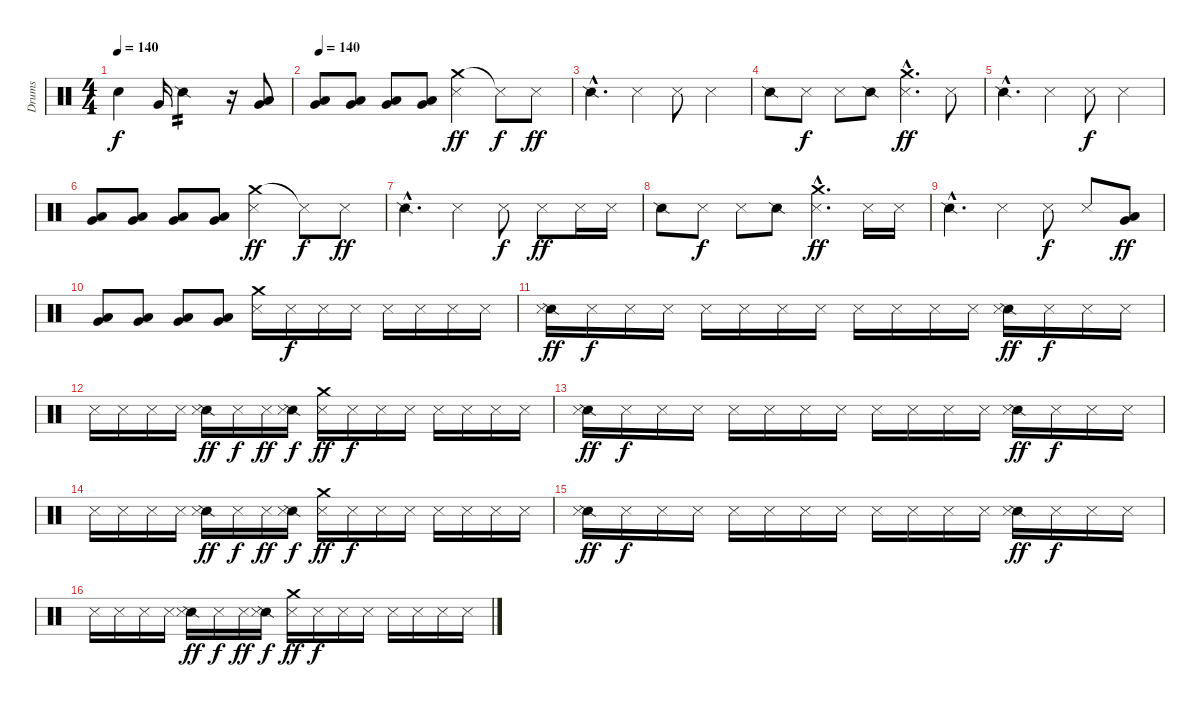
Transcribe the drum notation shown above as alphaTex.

\track ("Drums" "Drums") {instrument percussion}
\staff {score}
\articulation defaults
\ts (4 4)
\tempo 140
\clef neutral
\ks c "Snare (hit)"{t}.4{dy f} "Very Low Tom (hit)".16 "Snare (side stick) 2".2{tp 2}
r.16 ("Very Low Tom (hit)" "Low Floor Tom (hit)").8{bd 240} |
\tempo 140
("Very Low Tom (hit)" "Low Floor Tom (hit)").8{bd 120} ("Very Low Tom (hit)" "Low Floor Tom (hit)").8{bd 60} ("Very Low Tom (hit)" "Low Floor Tom (hit)").8{bd 60} ("Very Low Tom (hit)" "Low Floor Tom (hit)").8{bd 60} ("Crash medium (hit)" "Metronome (hit)").4{dy ff} "Metronome (hit)"{t}.8{dy f} "Metronome (hit)".8{dy ff} |
"Snare (side stick) 2"{hac}.4{d} "Metronome (hit)".4 "Metronome (hit)".8 "Metronome (hit)".4 |
"Snare (side stick) 2".8 "Metronome (hit)".8{dy f} "Metronome (hit)".8 "Snare (side stick) 2".8 ("Crash medium (hit)"{hac} "Metronome (hit)"{hac}).4{d dy ff} "Metronome (hit)".8 |
"Snare (side stick) 2"{hac}.4{d} "Metronome (hit)".4 "Metronome (hit)".8{dy f} "Metronome (hit)".4 |
("Very Low Tom (hit)" "Low Floor Tom (hit)").8{bd 120} ("Very Low Tom (hit)" "Low Floor Tom (hit)").8{bd 60} ("Very Low Tom (hit)" "Low Floor Tom (hit)").8{bd 60} ("Very Low Tom (hit)" "Low Floor Tom (hit)").8{bd 60} ("Crash medium (hit)" "Metronome (hit)").4{dy ff} "Metronome (hit)"{t}.8{dy f} "Metronome (hit)".8{dy ff} |
"Snare (side stick) 2"{hac}.4{d} "Metronome (hit)".4 "Metronome (hit)".8{dy f} "Metronome (hit)".8{dy ff} "Metronome (hit)".16 "Metronome (hit)".16 |
"Snare (side stick) 2".8 "Metronome (hit)".8{dy f} "Metronome (hit)".8 "Snare (side stick) 2".8 ("Crash medium (hit)"{hac} "Metronome (hit)"{hac}).4{d dy ff} "Metronome (hit)".16 "Metronome (hit)".16 |
"Snare (side stick) 2"{hac}.4{d} "Metronome (hit)".4 "Metronome (hit)".8{dy f} "Metronome (hit)".8 ("Very Low Tom (hit)" "Low Floor Tom (hit)").8{bd 60 dy ff} |
("Very Low Tom (hit)" "Low Floor Tom (hit)").8{bd 120} ("Very Low Tom (hit)" "Low Floor Tom (hit)").8{bd 60} ("Very Low Tom (hit)" "Low Floor Tom (hit)").8{bd 60} ("Very Low Tom (hit)" "Low Floor Tom (hit)").8{bd 60} ("Crash medium (hit)" "Metronome (hit)").16 "Metronome (hit)".16{dy f} "Metronome (hit)".16 "Metronome (hit)".16 "Metronome (hit)".16 "Metronome (hit)".16 "Metronome (hit)".16 "Metronome (hit)".16 |
("Snare (side stick) 2" "Metronome (hit)").16{dy ff} "Metronome (hit)".16{dy f} "Metronome (hit)".16 "Metronome (hit)".16 "Metronome (hit)".16 "Metronome (hit)".16 "Metronome (hit)".16 "Metronome (hit)".16 "Metronome (hit)".16 "Metronome (hit)".16 "Metronome (hit)".16 "Metronome (hit)".16 ("Snare (side stick) 2" "Metronome (hit)").16{dy ff} "Metronome (hit)".16{dy f} "Metronome (hit)".16 "Metronome (hit)".16 |
"Metronome (hit)".16 "Metronome (hit)".16 "Metronome (hit)".16 "Metronome (hit)".16 ("Snare (side stick) 2" "Metronome (hit)").16{dy ff} "Metronome (hit)".16{dy f} "Metronome (hit)".16{dy ff} ("Snare (side stick) 2" "Metronome (hit)").16{dy f} ("Crash medium (hit)" "Metronome (hit)").16{dy ff} "Metronome (hit)".16{dy f} "Metronome (hit)".16 "Metronome (hit)".16 "Metronome (hit)".16 "Metronome (hit)".16 "Metronome (hit)".16 "Metronome (hit)".16 |
("Snare (side stick) 2" "Metronome (hit)").16{dy ff} "Metronome (hit)".16{dy f} "Metronome (hit)".16 "Metronome (hit)".16 "Metronome (hit)".16 "Metronome (hit)".16 "Metronome (hit)".16 "Metronome (hit)".16 "Metronome (hit)".16 "Metronome (hit)".16 "Metronome (hit)".16 "Metronome (hit)".16 ("Snare (side stick) 2" "Metronome (hit)").16{dy ff} "Metronome (hit)".16{dy f} "Metronome (hit)".16 "Metronome (hit)".16 |
"Metronome (hit)".16 "Metronome (hit)".16 "Metronome (hit)".16 "Metronome (hit)".16 ("Snare (side stick) 2" "Metronome (hit)").16{dy ff} "Metronome (hit)".16{dy f} "Metronome (hit)".16{dy ff} ("Snare (side stick) 2" "Metronome (hit)").16{dy f} ("Crash medium (hit)" "Metronome (hit)").16{dy ff} "Metronome (hit)".16{dy f} "Metronome (hit)".16 "Metronome (hit)".16 "Metronome (hit)".16 "Metronome (hit)".16 "Metronome (hit)".16 "Metronome (hit)".16 |
("Snare (side stick) 2" "Metronome (hit)").16{dy ff} "Metronome (hit)".16{dy f} "Metronome (hit)".16 "Metronome (hit)".16 "Metronome (hit)".16 "Metronome (hit)".16 "Metronome (hit)".16 "Metronome (hit)".16 "Metronome (hit)".16 "Metronome (hit)".16 "Metronome (hit)".16 "Metronome (hit)".16 ("Snare (side stick) 2" "Metronome (hit)").16{dy ff} "Metronome (hit)".16{dy f} "Metronome (hit)".16 "Metronome (hit)".16 |
"Metronome (hit)".16 "Metronome (hit)".16 "Metronome (hit)".16 "Metronome (hit)".16 ("Snare (side stick) 2" "Metronome (hit)").16{dy ff} "Metronome (hit)".16{dy f} "Metronome (hit)".16{dy ff} ("Snare (side stick) 2" "Metronome (hit)").16{dy f} ("Crash medium (hit)" "Metronome (hit)").16{dy ff} "Metronome (hit)".16{dy f} "Metronome (hit)".16 "Metronome (hit)".16 "Metronome (hit)".16 "Metronome (hit)".16 "Metronome (hit)".16 "Metronome (hit)".16
